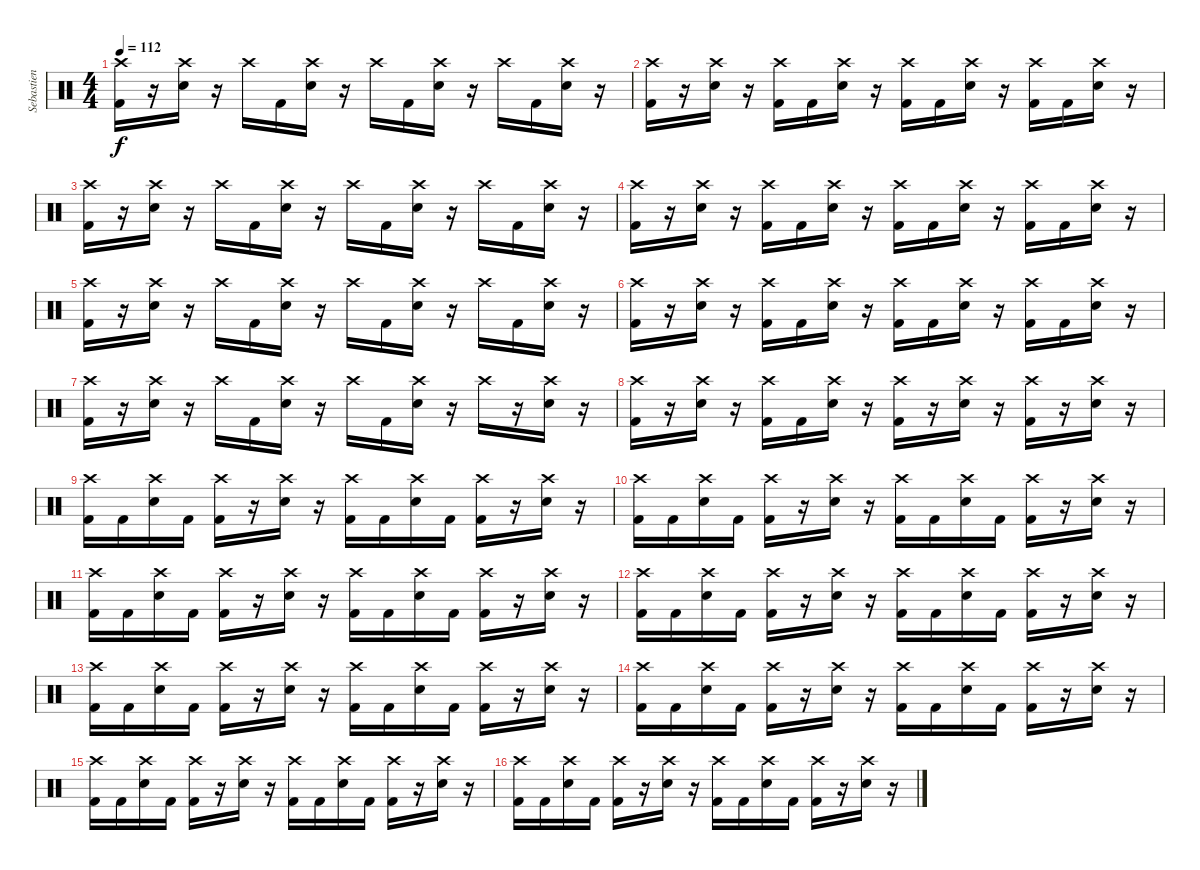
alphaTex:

\track ("Sebastien Grainger" "Sebastien ") {instrument percussion}
\staff {score}
\articulation defaults
\ts (4 4)
\tempo 112
\clef neutral
\ks c
("Crash high (hit)" "Kick (hit) 2").16{dy f} r.16 ("Crash high (hit)" "Snare (hit) 2").16 r.16 "Crash high (hit)".16 "Kick (hit) 2".16 ("Crash high (hit)" "Snare (hit) 2").16 r.16 "Crash high (hit)".16 "Kick (hit) 2".16 ("Crash high (hit)" "Snare (hit) 2").16 r.16 "Crash high (hit)".16 "Kick (hit) 2".16 ("Crash high (hit)" "Snare (hit) 2").16 r.16 |
("Crash high (hit)" "Kick (hit) 2").16 r.16 ("Crash high (hit)" "Snare (hit) 2").16 r.16 ("Crash high (hit)" "Kick (hit) 2").16 "Kick (hit) 2".16 ("Crash high (hit)" "Snare (hit) 2").16 r.16 ("Crash high (hit)" "Kick (hit) 2").16 "Kick (hit) 2".16 ("Crash high (hit)" "Snare (hit) 2").16 r.16 ("Crash high (hit)" "Kick (hit) 2").16 "Kick (hit) 2".16 ("Crash high (hit)" "Snare (hit) 2").16 r.16 |
("Crash high (hit)" "Kick (hit) 2").16 r.16 ("Crash high (hit)" "Snare (hit) 2").16 r.16 "Crash high (hit)".16 "Kick (hit) 2".16 ("Crash high (hit)" "Snare (hit) 2").16 r.16 "Crash high (hit)".16 "Kick (hit) 2".16 ("Crash high (hit)" "Snare (hit) 2").16 r.16 "Crash high (hit)".16 "Kick (hit) 2".16 ("Crash high (hit)" "Snare (hit) 2").16 r.16 |
("Crash high (hit)" "Kick (hit) 2").16 r.16 ("Crash high (hit)" "Snare (hit) 2").16 r.16 ("Crash high (hit)" "Kick (hit) 2").16 "Kick (hit) 2".16 ("Crash high (hit)" "Snare (hit) 2").16 r.16 ("Crash high (hit)" "Kick (hit) 2").16 "Kick (hit) 2".16 ("Crash high (hit)" "Snare (hit) 2").16 r.16 ("Crash high (hit)" "Kick (hit) 2").16 "Kick (hit) 2".16 ("Crash high (hit)" "Snare (hit) 2").16 r.16 |
("Crash high (hit)" "Kick (hit) 2").16 r.16 ("Crash high (hit)" "Snare (hit) 2").16 r.16 "Crash high (hit)".16 "Kick (hit) 2".16 ("Crash high (hit)" "Snare (hit) 2").16 r.16 "Crash high (hit)".16 "Kick (hit) 2".16 ("Crash high (hit)" "Snare (hit) 2").16 r.16 "Crash high (hit)".16 "Kick (hit) 2".16 ("Crash high (hit)" "Snare (hit) 2").16 r.16 |
("Crash high (hit)" "Kick (hit) 2").16 r.16 ("Crash high (hit)" "Snare (hit) 2").16 r.16 ("Crash high (hit)" "Kick (hit) 2").16 "Kick (hit) 2".16 ("Crash high (hit)" "Snare (hit) 2").16 r.16 ("Crash high (hit)" "Kick (hit) 2").16 "Kick (hit) 2".16 ("Crash high (hit)" "Snare (hit) 2").16 r.16 ("Crash high (hit)" "Kick (hit) 2").16 "Kick (hit) 2".16 ("Crash high (hit)" "Snare (hit) 2").16 r.16 |
("Crash high (hit)" "Kick (hit) 2").16 r.16 ("Crash high (hit)" "Snare (hit) 2").16 r.16 "Crash high (hit)".16 "Kick (hit) 2".16 ("Crash high (hit)" "Snare (hit) 2").16 r.16 "Crash high (hit)".16 "Kick (hit) 2".16 ("Crash high (hit)" "Snare (hit) 2").16 r.16 "Crash high (hit)".16 r.16 ("Crash high (hit)" "Snare (hit) 2").16 r.16 |
("Crash high (hit)" "Kick (hit) 2").16 r.16 ("Crash high (hit)" "Snare (hit) 2").16 r.16 ("Crash high (hit)" "Kick (hit) 2").16 "Kick (hit) 2".16 ("Crash high (hit)" "Snare (hit) 2").16 r.16 ("Crash high (hit)" "Kick (hit) 2").16 r.16 ("Crash high (hit)" "Snare (hit) 2").16 r.16 ("Crash high (hit)" "Kick (hit) 2").16 r.16 ("Crash high (hit)" "Snare (hit) 2").16 r.16 |
("Crash high (hit)" "Kick (hit) 2").16 "Kick (hit) 2".16 ("Crash high (hit)" "Snare (hit) 2").16 "Kick (hit) 2".16 ("Crash high (hit)" "Kick (hit) 2").16 r.16 ("Crash high (hit)" "Snare (hit) 2").16 r.16 ("Crash high (hit)" "Kick (hit) 2").16 "Kick (hit) 2".16 ("Crash high (hit)" "Snare (hit) 2").16 "Kick (hit) 2".16 ("Crash high (hit)" "Kick (hit) 2").16 r.16 ("Crash high (hit)" "Snare (hit) 2").16 r.16 |
("Crash high (hit)" "Kick (hit) 2").16 "Kick (hit) 2".16 ("Crash high (hit)" "Snare (hit) 2").16 "Kick (hit) 2".16 ("Crash high (hit)" "Kick (hit) 2").16 r.16 ("Crash high (hit)" "Snare (hit) 2").16 r.16 ("Crash high (hit)" "Kick (hit) 2").16 "Kick (hit) 2".16 ("Crash high (hit)" "Snare (hit) 2").16 "Kick (hit) 2".16 ("Crash high (hit)" "Kick (hit) 2").16 r.16 ("Crash high (hit)" "Snare (hit) 2").16 r.16 |
("Crash high (hit)" "Kick (hit) 2").16 "Kick (hit) 2".16 ("Crash high (hit)" "Snare (hit) 2").16 "Kick (hit) 2".16 ("Crash high (hit)" "Kick (hit) 2").16 r.16 ("Crash high (hit)" "Snare (hit) 2").16 r.16 ("Crash high (hit)" "Kick (hit) 2").16 "Kick (hit) 2".16 ("Crash high (hit)" "Snare (hit) 2").16 "Kick (hit) 2".16 ("Crash high (hit)" "Kick (hit) 2").16 r.16 ("Crash high (hit)" "Snare (hit) 2").16 r.16 |
("Crash high (hit)" "Kick (hit) 2").16 "Kick (hit) 2".16 ("Crash high (hit)" "Snare (hit) 2").16 "Kick (hit) 2".16 ("Crash high (hit)" "Kick (hit) 2").16 r.16 ("Crash high (hit)" "Snare (hit) 2").16 r.16 ("Crash high (hit)" "Kick (hit) 2").16 "Kick (hit) 2".16 ("Crash high (hit)" "Snare (hit) 2").16 "Kick (hit) 2".16 ("Crash high (hit)" "Kick (hit) 2").16 r.16 ("Crash high (hit)" "Snare (hit) 2").16 r.16 |
("Crash high (hit)" "Kick (hit) 2").16 "Kick (hit) 2".16 ("Crash high (hit)" "Snare (hit) 2").16 "Kick (hit) 2".16 ("Crash high (hit)" "Kick (hit) 2").16 r.16 ("Crash high (hit)" "Snare (hit) 2").16 r.16 ("Crash high (hit)" "Kick (hit) 2").16 "Kick (hit) 2".16 ("Crash high (hit)" "Snare (hit) 2").16 "Kick (hit) 2".16 ("Crash high (hit)" "Kick (hit) 2").16 r.16 ("Crash high (hit)" "Snare (hit) 2").16 r.16 |
("Crash high (hit)" "Kick (hit) 2").16 "Kick (hit) 2".16 ("Crash high (hit)" "Snare (hit) 2").16 "Kick (hit) 2".16 ("Crash high (hit)" "Kick (hit) 2").16 r.16 ("Crash high (hit)" "Snare (hit) 2").16 r.16 ("Crash high (hit)" "Kick (hit) 2").16 "Kick (hit) 2".16 ("Crash high (hit)" "Snare (hit) 2").16 "Kick (hit) 2".16 ("Crash high (hit)" "Kick (hit) 2").16 r.16 ("Crash high (hit)" "Snare (hit) 2").16 r.16 |
("Crash high (hit)" "Kick (hit) 2").16 "Kick (hit) 2".16 ("Crash high (hit)" "Snare (hit) 2").16 "Kick (hit) 2".16 ("Crash high (hit)" "Kick (hit) 2").16 r.16 ("Crash high (hit)" "Snare (hit) 2").16 r.16 ("Crash high (hit)" "Kick (hit) 2").16 "Kick (hit) 2".16 ("Crash high (hit)" "Snare (hit) 2").16 "Kick (hit) 2".16 ("Crash high (hit)" "Kick (hit) 2").16 r.16 ("Crash high (hit)" "Snare (hit) 2").16 r.16 |
("Crash high (hit)" "Kick (hit) 2").16 "Kick (hit) 2".16 ("Crash high (hit)" "Snare (hit) 2").16 "Kick (hit) 2".16 ("Crash high (hit)" "Kick (hit) 2").16 r.16 ("Crash high (hit)" "Snare (hit) 2").16 r.16 ("Crash high (hit)" "Kick (hit) 2").16 "Kick (hit) 2".16 ("Crash high (hit)" "Snare (hit) 2").16 "Kick (hit) 2".16 ("Crash high (hit)" "Kick (hit) 2").16 r.16 ("Crash high (hit)" "Snare (hit) 2").16 r.16
